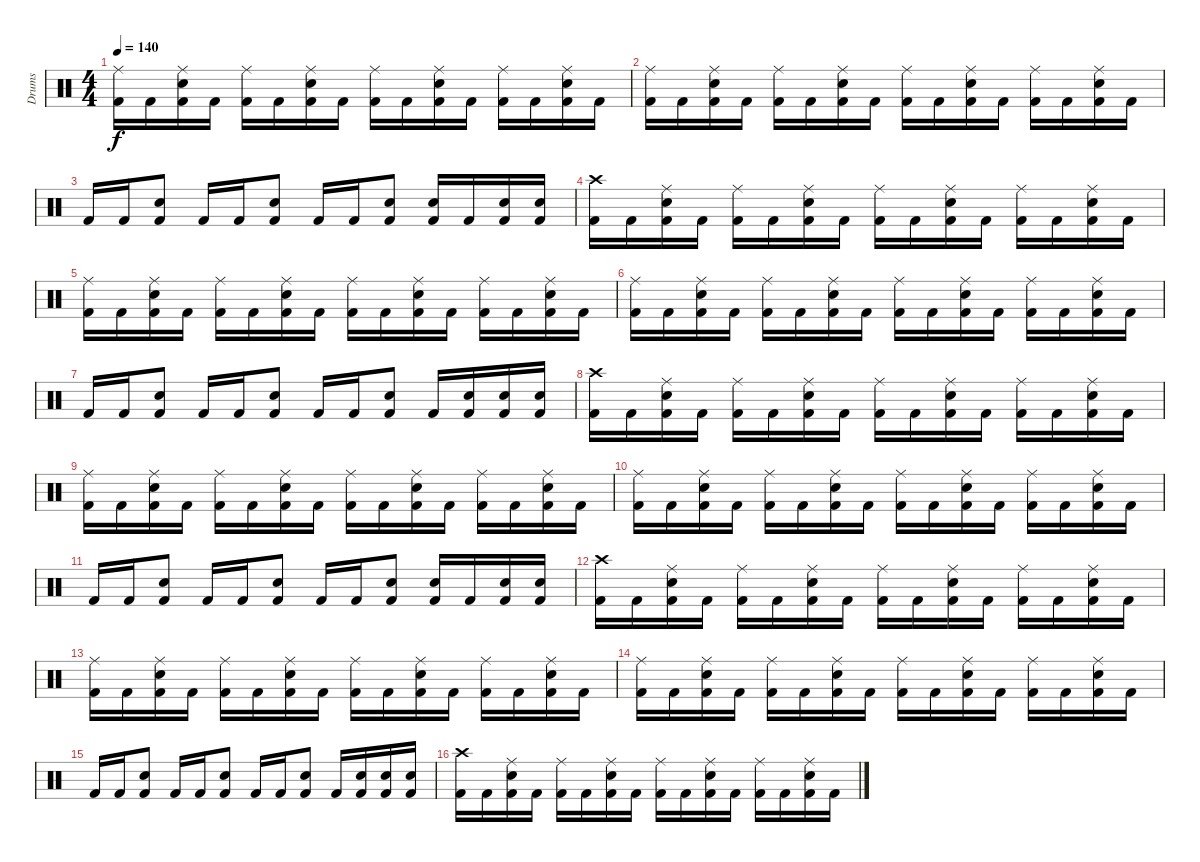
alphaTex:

\track ("Drums" "Drums") {instrument percussion}
\staff {score}
\articulation defaults
\ts (4 4)
\tempo 140
\clef neutral
\ks c
("Ride (middle)" "Kick (hit) 2").16{dy f} "Kick (hit) 2".16 ("Ride (middle)" "Electric Snare (hit)" "Kick (hit) 2").16 "Kick (hit) 2".16 ("Ride (middle)" "Kick (hit) 2").16 "Kick (hit) 2".16 ("Ride (middle)" "Electric Snare (hit)" "Kick (hit) 2").16 "Kick (hit) 2".16 ("Ride (middle)" "Kick (hit) 2").16 "Kick (hit) 2".16 ("Ride (middle)" "Electric Snare (hit)" "Kick (hit) 2").16 "Kick (hit) 2".16 ("Ride (middle)" "Kick (hit) 2").16 "Kick (hit) 2".16 ("Ride (middle)" "Electric Snare (hit)" "Kick (hit) 2").16 "Kick (hit) 2".16 |
("Ride (middle)" "Kick (hit) 2").16 "Kick (hit) 2".16 ("Ride (middle)" "Electric Snare (hit)" "Kick (hit) 2").16 "Kick (hit) 2".16 ("Ride (middle)" "Kick (hit) 2").16 "Kick (hit) 2".16 ("Ride (middle)" "Electric Snare (hit)" "Kick (hit) 2").16 "Kick (hit) 2".16 ("Ride (middle)" "Kick (hit) 2").16 "Kick (hit) 2".16 ("Ride (middle)" "Electric Snare (hit)" "Kick (hit) 2").16 "Kick (hit) 2".16 ("Ride (middle)" "Kick (hit) 2").16 "Kick (hit) 2".16 ("Ride (middle)" "Electric Snare (hit)" "Kick (hit) 2").16 "Kick (hit) 2".16 |
"Kick (hit) 2".16 "Kick (hit) 2".16 ("Electric Snare (hit)" "Kick (hit) 2").8 "Kick (hit) 2".16 "Kick (hit) 2".16 ("Electric Snare (hit)" "Kick (hit) 2").8 "Kick (hit) 2".16 "Kick (hit) 2".16 ("Electric Snare (hit)" "Kick (hit) 2").8 ("Electric Snare (hit)" "Kick (hit) 2").16 "Kick (hit) 2".16 ("Electric Snare (hit)" "Kick (hit) 2").16 ("Electric Snare (hit)" "Kick (hit) 2").16 |
("Crash high (hit)" "Kick (hit) 2").16 "Kick (hit) 2".16 ("Ride (middle)" "Electric Snare (hit)" "Kick (hit) 2").16 "Kick (hit) 2".16 ("Ride (middle)" "Kick (hit) 2").16 "Kick (hit) 2".16 ("Ride (middle)" "Electric Snare (hit)" "Kick (hit) 2").16 "Kick (hit) 2".16 ("Ride (middle)" "Kick (hit) 2").16 "Kick (hit) 2".16 ("Ride (middle)" "Electric Snare (hit)" "Kick (hit) 2").16 "Kick (hit) 2".16 ("Ride (middle)" "Kick (hit) 2").16 "Kick (hit) 2".16 ("Ride (middle)" "Electric Snare (hit)" "Kick (hit) 2").16 "Kick (hit) 2".16 |
("Ride (middle)" "Kick (hit) 2").16 "Kick (hit) 2".16 ("Ride (middle)" "Electric Snare (hit)" "Kick (hit) 2").16 "Kick (hit) 2".16 ("Ride (middle)" "Kick (hit) 2").16 "Kick (hit) 2".16 ("Ride (middle)" "Electric Snare (hit)" "Kick (hit) 2").16 "Kick (hit) 2".16 ("Ride (middle)" "Kick (hit) 2").16 "Kick (hit) 2".16 ("Ride (middle)" "Electric Snare (hit)" "Kick (hit) 2").16 "Kick (hit) 2".16 ("Ride (middle)" "Kick (hit) 2").16 "Kick (hit) 2".16 ("Ride (middle)" "Electric Snare (hit)" "Kick (hit) 2").16 "Kick (hit) 2".16 |
("Ride (middle)" "Kick (hit) 2").16 "Kick (hit) 2".16 ("Ride (middle)" "Electric Snare (hit)" "Kick (hit) 2").16 "Kick (hit) 2".16 ("Ride (middle)" "Kick (hit) 2").16 "Kick (hit) 2".16 ("Ride (middle)" "Electric Snare (hit)" "Kick (hit) 2").16 "Kick (hit) 2".16 ("Ride (middle)" "Kick (hit) 2").16 "Kick (hit) 2".16 ("Ride (middle)" "Electric Snare (hit)" "Kick (hit) 2").16 "Kick (hit) 2".16 ("Ride (middle)" "Kick (hit) 2").16 "Kick (hit) 2".16 ("Ride (middle)" "Electric Snare (hit)" "Kick (hit) 2").16 "Kick (hit) 2".16 |
"Kick (hit) 2".16 "Kick (hit) 2".16 ("Electric Snare (hit)" "Kick (hit) 2").8 "Kick (hit) 2".16 "Kick (hit) 2".16 ("Electric Snare (hit)" "Kick (hit) 2").8 "Kick (hit) 2".16 "Kick (hit) 2".16 ("Electric Snare (hit)" "Kick (hit) 2").8 "Kick (hit) 2".16 ("Electric Snare (hit)" "Kick (hit) 2").16 ("Electric Snare (hit)" "Kick (hit) 2").16 ("Electric Snare (hit)" "Kick (hit) 2").16 |
("Crash high (hit)" "Kick (hit) 2").16 "Kick (hit) 2".16 ("Ride (middle)" "Electric Snare (hit)" "Kick (hit) 2").16 "Kick (hit) 2".16 ("Ride (middle)" "Kick (hit) 2").16 "Kick (hit) 2".16 ("Ride (middle)" "Electric Snare (hit)" "Kick (hit) 2").16 "Kick (hit) 2".16 ("Ride (middle)" "Kick (hit) 2").16 "Kick (hit) 2".16 ("Ride (middle)" "Electric Snare (hit)" "Kick (hit) 2").16 "Kick (hit) 2".16 ("Ride (middle)" "Kick (hit) 2").16 "Kick (hit) 2".16 ("Ride (middle)" "Electric Snare (hit)" "Kick (hit) 2").16 "Kick (hit) 2".16 |
("Ride (middle)" "Kick (hit) 2").16 "Kick (hit) 2".16 ("Ride (middle)" "Electric Snare (hit)" "Kick (hit) 2").16 "Kick (hit) 2".16 ("Ride (middle)" "Kick (hit) 2").16 "Kick (hit) 2".16 ("Ride (middle)" "Electric Snare (hit)" "Kick (hit) 2").16 "Kick (hit) 2".16 ("Ride (middle)" "Kick (hit) 2").16 "Kick (hit) 2".16 ("Ride (middle)" "Electric Snare (hit)" "Kick (hit) 2").16 "Kick (hit) 2".16 ("Ride (middle)" "Kick (hit) 2").16 "Kick (hit) 2".16 ("Ride (middle)" "Electric Snare (hit)" "Kick (hit) 2").16 "Kick (hit) 2".16 |
("Ride (middle)" "Kick (hit) 2").16 "Kick (hit) 2".16 ("Ride (middle)" "Electric Snare (hit)" "Kick (hit) 2").16 "Kick (hit) 2".16 ("Ride (middle)" "Kick (hit) 2").16 "Kick (hit) 2".16 ("Ride (middle)" "Electric Snare (hit)" "Kick (hit) 2").16 "Kick (hit) 2".16 ("Ride (middle)" "Kick (hit) 2").16 "Kick (hit) 2".16 ("Ride (middle)" "Electric Snare (hit)" "Kick (hit) 2").16 "Kick (hit) 2".16 ("Ride (middle)" "Kick (hit) 2").16 "Kick (hit) 2".16 ("Ride (middle)" "Electric Snare (hit)" "Kick (hit) 2").16 "Kick (hit) 2".16 |
"Kick (hit) 2".16 "Kick (hit) 2".16 ("Electric Snare (hit)" "Kick (hit) 2").8 "Kick (hit) 2".16 "Kick (hit) 2".16 ("Electric Snare (hit)" "Kick (hit) 2").8 "Kick (hit) 2".16 "Kick (hit) 2".16 ("Electric Snare (hit)" "Kick (hit) 2").8 ("Electric Snare (hit)" "Kick (hit) 2").16 "Kick (hit) 2".16 ("Electric Snare (hit)" "Kick (hit) 2").16 ("Electric Snare (hit)" "Kick (hit) 2").16 |
("Crash high (hit)" "Kick (hit) 2").16 "Kick (hit) 2".16 ("Ride (middle)" "Electric Snare (hit)" "Kick (hit) 2").16 "Kick (hit) 2".16 ("Ride (middle)" "Kick (hit) 2").16 "Kick (hit) 2".16 ("Ride (middle)" "Electric Snare (hit)" "Kick (hit) 2").16 "Kick (hit) 2".16 ("Ride (middle)" "Kick (hit) 2").16 "Kick (hit) 2".16 ("Ride (middle)" "Electric Snare (hit)" "Kick (hit) 2").16 "Kick (hit) 2".16 ("Ride (middle)" "Kick (hit) 2").16 "Kick (hit) 2".16 ("Ride (middle)" "Electric Snare (hit)" "Kick (hit) 2").16 "Kick (hit) 2".16 |
("Ride (middle)" "Kick (hit) 2").16 "Kick (hit) 2".16 ("Ride (middle)" "Electric Snare (hit)" "Kick (hit) 2").16 "Kick (hit) 2".16 ("Ride (middle)" "Kick (hit) 2").16 "Kick (hit) 2".16 ("Ride (middle)" "Electric Snare (hit)" "Kick (hit) 2").16 "Kick (hit) 2".16 ("Ride (middle)" "Kick (hit) 2").16 "Kick (hit) 2".16 ("Ride (middle)" "Electric Snare (hit)" "Kick (hit) 2").16 "Kick (hit) 2".16 ("Ride (middle)" "Kick (hit) 2").16 "Kick (hit) 2".16 ("Ride (middle)" "Electric Snare (hit)" "Kick (hit) 2").16 "Kick (hit) 2".16 |
("Ride (middle)" "Kick (hit) 2").16 "Kick (hit) 2".16 ("Ride (middle)" "Electric Snare (hit)" "Kick (hit) 2").16 "Kick (hit) 2".16 ("Ride (middle)" "Kick (hit) 2").16 "Kick (hit) 2".16 ("Ride (middle)" "Electric Snare (hit)" "Kick (hit) 2").16 "Kick (hit) 2".16 ("Ride (middle)" "Kick (hit) 2").16 "Kick (hit) 2".16 ("Ride (middle)" "Electric Snare (hit)" "Kick (hit) 2").16 "Kick (hit) 2".16 ("Ride (middle)" "Kick (hit) 2").16 "Kick (hit) 2".16 ("Ride (middle)" "Electric Snare (hit)" "Kick (hit) 2").16 "Kick (hit) 2".16 |
"Kick (hit) 2".16 "Kick (hit) 2".16 ("Electric Snare (hit)" "Kick (hit) 2").8 "Kick (hit) 2".16 "Kick (hit) 2".16 ("Electric Snare (hit)" "Kick (hit) 2").8 "Kick (hit) 2".16 "Kick (hit) 2".16 ("Electric Snare (hit)" "Kick (hit) 2").8 "Kick (hit) 2".16 ("Electric Snare (hit)" "Kick (hit) 2").16 ("Electric Snare (hit)" "Kick (hit) 2").16 ("Electric Snare (hit)" "Kick (hit) 2").16 |
("Crash high (hit)" "Kick (hit) 2").16 "Kick (hit) 2".16 ("Ride (middle)" "Electric Snare (hit)" "Kick (hit) 2").16 "Kick (hit) 2".16 ("Ride (middle)" "Kick (hit) 2").16 "Kick (hit) 2".16 ("Ride (middle)" "Electric Snare (hit)" "Kick (hit) 2").16 "Kick (hit) 2".16 ("Ride (middle)" "Kick (hit) 2").16 "Kick (hit) 2".16 ("Ride (middle)" "Electric Snare (hit)" "Kick (hit) 2").16 "Kick (hit) 2".16 ("Ride (middle)" "Kick (hit) 2").16 "Kick (hit) 2".16 ("Ride (middle)" "Electric Snare (hit)" "Kick (hit) 2").16 "Kick (hit) 2".16
